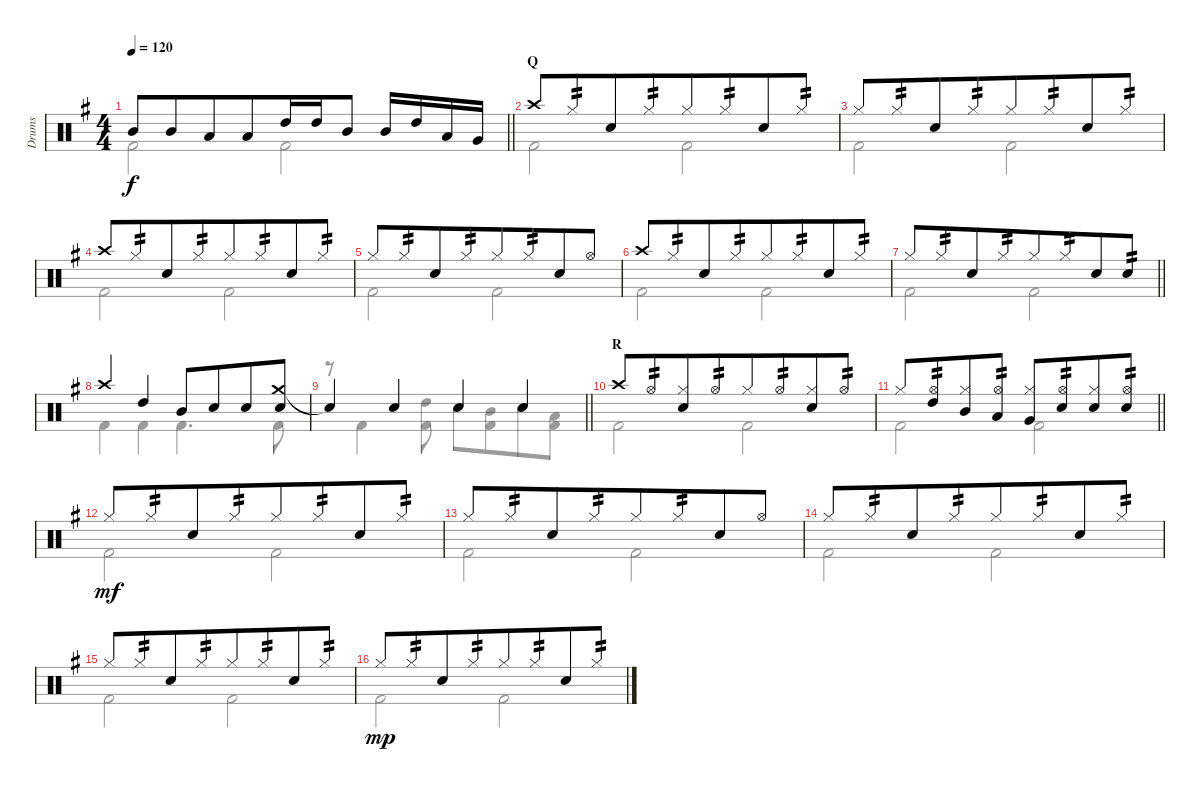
\track ("Drums" "Drums") {instrument percussion}
\staff {score}
\articulation defaults
\voice
\ts (4 4)
\tempo 120
\clef neutral
\barLineRight lightlight
\ks g "Mid Tom (hit)".8{dy f} "Mid Tom (hit)".8{beam merge} "Low Tom (hit)".8 "Low Tom (hit)".8{beam merge} "High Tom (hit)".16 "High Tom (hit)".16{beam merge} "Mid Tom (hit)".8 "Mid Tom (hit)".16 "High Tom (hit)".16 "Low Tom (hit)".16 "Very Low Tom (hit)".16
|
\section ("" "Q")
"Crash high (hit)".8 "Hi-Hat (closed)".8{tp 2 beam merge} "Snare (hit) 2".8 "Hi-Hat (closed)".8{tp 2 beam merge} "Hi-Hat (closed)".8 "Hi-Hat (closed)".8{tp 2 beam merge} "Snare (hit) 2".8 "Hi-Hat (closed)".8{tp 2} |
"Hi-Hat (closed)".8 "Hi-Hat (closed)".8{tp 2 beam merge} "Snare (hit) 2".8 "Hi-Hat (closed)".8{tp 2 beam merge} "Hi-Hat (closed)".8 "Hi-Hat (closed)".8{tp 2 beam merge} "Snare (hit) 2".8 "Hi-Hat (closed)".8{tp 2} |
"Crash high (hit)".8 "Hi-Hat (closed)".8{tp 2 beam merge} "Snare (hit) 2".8 "Hi-Hat (closed)".8{tp 2 beam merge} "Hi-Hat (closed)".8 "Hi-Hat (closed)".8{tp 2 beam merge} "Snare (hit) 2".8 "Hi-Hat (closed)".8{tp 2} |
"Hi-Hat (closed)".8 "Hi-Hat (closed)".8{tp 2 beam merge} "Snare (hit) 2".8 "Hi-Hat (closed)".8{tp 2 beam merge} "Hi-Hat (closed)".8 "Hi-Hat (closed)".8{tp 2 beam merge} "Snare (hit) 2".8 "Hi-Hat (open)".8 |
"Crash high (hit)".8 "Hi-Hat (closed)".8{tp 2 beam merge} "Snare (hit) 2".8 "Hi-Hat (closed)".8{tp 2 beam merge} "Hi-Hat (closed)".8 "Hi-Hat (closed)".8{tp 2 beam merge} "Snare (hit) 2".8 "Hi-Hat (closed)".8{tp 2} |
\barLineRight lightlight "Hi-Hat (closed)".8 "Hi-Hat (closed)".8{tp 2 beam merge} "Snare (hit) 2".8 "Hi-Hat (closed)".8{tp 2 beam merge} "Hi-Hat (closed)".8 "Hi-Hat (closed)".8{tp 2 beam merge} "Snare (hit) 2".8 "Electric Snare (hit)".8{tp 2}
|
"Crash high (hit)".4 "High Tom (hit)".4 "Mid Tom (hit)".8{beam merge} "Electric Snare (hit)".8{beam merge} "Electric Snare (hit)".8{beam merge} ("Crash medium (hit)" "Snare (hit) 2").8 |
\barLineRight lightlight "Snare (hit)"{t}.4{beam merge} "Snare (hit) 2".4 "Snare (hit) 2".4 "Snare (hit) 2".4
|
\section ("" "R")
"Crash high (hit)".8 "Hi-Hat (open)".8{tp 2 beam merge} ("Hi-Hat (closed)" "Snare (hit) 2").8 "Hi-Hat (open)".8{tp 2 beam merge} "Hi-Hat (closed)".8 "Hi-Hat (open)".8{tp 2 beam merge} ("Hi-Hat (closed)" "Electric Snare (hit)").8 "Hi-Hat (open)".8{tp 2} |
\barLineRight lightlight "Hi-Hat (closed)".8
("Hi-Hat (open)" "High Tom (hit)").8{tp 2 beam merge} ("Hi-Hat (closed)" "Mid Tom (hit)").8 ("Hi-Hat (open)" "Low Tom (hit)").8{tp 2} ("Hi-Hat (closed)" "Very Low Tom (hit)").8 ("Hi-Hat (open)" "Electric Snare (hit)").8{tp 2 beam merge} ("Hi-Hat (closed)" "Electric Snare (hit)").8 ("Hi-Hat (open)" "Electric Snare (hit)").8{tp 2} |
"Hi-Hat (closed)".8{dy mf} "Hi-Hat (closed)".8{tp 2 beam merge} "Snare (hit) 2".8 "Hi-Hat (closed)".8{tp 2 beam merge} "Hi-Hat (closed)".8 "Hi-Hat (closed)".8{tp 2 beam merge} "Snare (hit) 2".8 "Hi-Hat (closed)".8{tp 2} |
"Hi-Hat (closed)".8 "Hi-Hat (closed)".8{tp 2 beam merge} "Snare (hit) 2".8 "Hi-Hat (closed)".8{tp 2 beam merge} "Hi-Hat (closed)".8 "Hi-Hat (closed)".8{tp 2 beam merge} "Snare (hit) 2".8 "Hi-Hat (open)".8 |
"Hi-Hat (closed)".8 "Hi-Hat (closed)".8{tp 2 beam merge} "Snare (hit) 2".8 "Hi-Hat (closed)".8{tp 2 beam merge} "Hi-Hat (closed)".8 "Hi-Hat (closed)".8{tp 2 beam merge} "Snare (hit) 2".8 "Hi-Hat (closed)".8{tp 2} |
"Hi-Hat (closed)".8 "Hi-Hat (closed)".8{tp 2 beam merge} "Snare (hit) 2".8 "Hi-Hat (closed)".8{tp 2 beam merge} "Hi-Hat (closed)".8 "Hi-Hat (closed)".8{tp 2 beam merge} "Snare (hit) 2".8 "Hi-Hat (closed)".8{tp 2} |
"Hi-Hat (closed)".8{dy mp volume 0} "Hi-Hat (closed)".8{tp 2 beam merge} "Snare (hit) 2".8 "Hi-Hat (closed)".8{tp 2 beam merge} "Hi-Hat (closed)".8 "Hi-Hat (closed)".8{tp 2 beam merge} "Snare (hit) 2".8 "Hi-Hat (closed)".8{tp 2}
\voice
\clef neutral
\ottava regular
\simile none
\barLineRight lightlight
\ks g "Kick (hit) 2".2{dy f} "Kick (hit) 2".2
|
"Kick (hit) 2".2 "Kick (hit) 2".2 |
"Kick (hit) 2".2 "Kick (hit) 2".2 |
"Kick (hit) 2".2 "Kick (hit) 2".2 |
"Kick (hit) 2".2 "Kick (hit) 2".2 |
"Kick (hit) 2".2 "Kick (hit) 2".2 |
\barLineRight lightlight "Kick (hit) 2".2 "Kick (hit) 2".2
|
"Kick (hit) 2".4 "Kick (hit) 2".4 "Kick (hit) 2".4{d} "Kick (hit) 2".8 |
\barLineRight lightlight
r.8 "Kick (hit) 2".4 ("High Tom (hit)" "Kick (hit) 2").8 "Electric Snare (hit)".8 ("Mid Tom (hit)" "Kick (hit) 2").8{beam merge} "Electric Snare (hit)".8 ("Low Tom (hit)" "Kick (hit) 2").8 |
"Kick (hit) 2".2 "Kick (hit) 2".2 |
\barLineRight lightlight "Kick (hit) 2".2 "Kick (hit) 2".2
|
"Kick (hit) 2".2{dy mf} "Kick (hit) 2".2 |
"Kick (hit) 2".2 "Kick (hit) 2".2 |
"Kick (hit) 2".2 "Kick (hit) 2".2 |
"Kick (hit) 2".2 "Kick (hit) 2".2 |
"Kick (hit) 2".2{dy mp} "Kick (hit) 2".2
